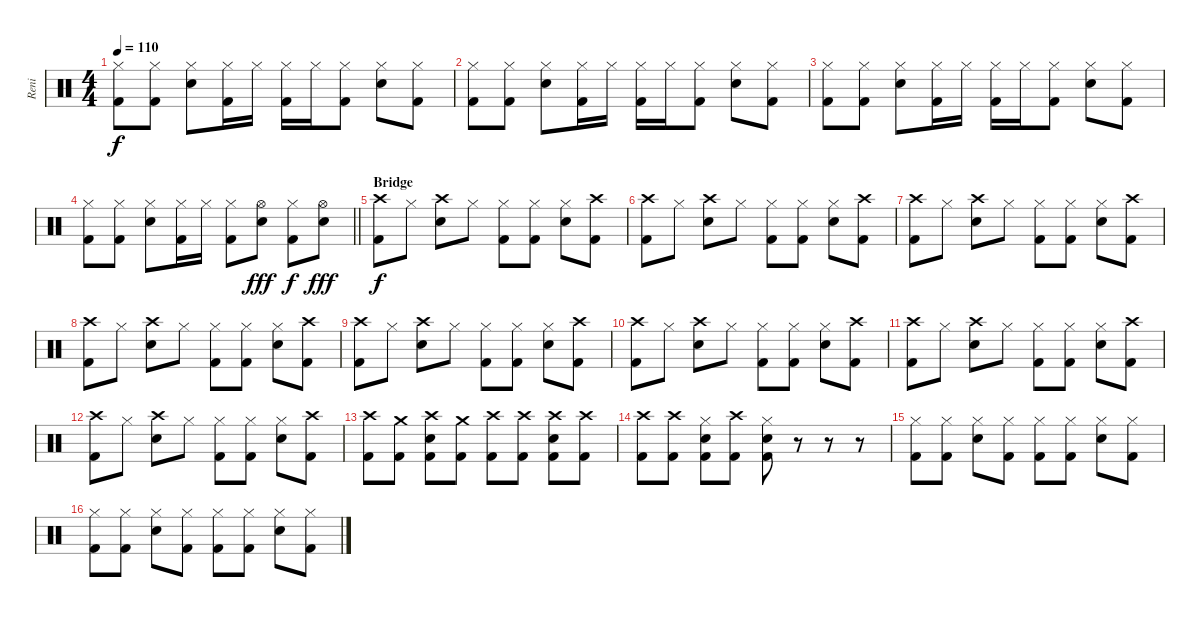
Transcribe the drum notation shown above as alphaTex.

\track ("Reni" "Reni") {instrument percussion}
\staff {score}
\articulation defaults
\ts (4 4)
\tempo 110
\clef neutral
\ks c
("Hi-Hat (closed)" "Kick (hit) 2").8{dy f} ("Hi-Hat (closed)" "Kick (hit) 2").8 ("Hi-Hat (closed)" "Electric Snare (hit)").8 ("Hi-Hat (closed)" "Kick (hit) 2").16 "Hi-Hat (closed)".16 ("Hi-Hat (closed)" "Kick (hit) 2").16 "Hi-Hat (closed)".16 ("Hi-Hat (closed)" "Kick (hit) 2").8 ("Hi-Hat (closed)" "Electric Snare (hit)").8 ("Hi-Hat (closed)" "Kick (hit) 2").8 |
("Hi-Hat (closed)" "Kick (hit) 2").8 ("Hi-Hat (closed)" "Kick (hit) 2").8 ("Hi-Hat (closed)" "Electric Snare (hit)").8 ("Hi-Hat (closed)" "Kick (hit) 2").16 "Hi-Hat (closed)".16 ("Hi-Hat (closed)" "Kick (hit) 2").16 "Hi-Hat (closed)".16 ("Hi-Hat (closed)" "Kick (hit) 2").8 ("Hi-Hat (closed)" "Electric Snare (hit)").8 ("Hi-Hat (closed)" "Kick (hit) 2").8 |
("Hi-Hat (closed)" "Kick (hit) 2").8 ("Hi-Hat (closed)" "Kick (hit) 2").8 ("Hi-Hat (closed)" "Electric Snare (hit)").8 ("Hi-Hat (closed)" "Kick (hit) 2").16 "Hi-Hat (closed)".16 ("Hi-Hat (closed)" "Kick (hit) 2").16 "Hi-Hat (closed)".16 ("Hi-Hat (closed)" "Kick (hit) 2").8 ("Hi-Hat (closed)" "Electric Snare (hit)").8 ("Hi-Hat (closed)" "Kick (hit) 2").8 |
\barLineRight lightlight
("Hi-Hat (closed)" "Kick (hit) 2").8 ("Hi-Hat (closed)" "Kick (hit) 2").8 ("Hi-Hat (closed)" "Electric Snare (hit)").8 ("Hi-Hat (closed)" "Kick (hit) 2").16 "Hi-Hat (closed)".16 ("Hi-Hat (closed)" "Kick (hit) 2").8 ("Hi-Hat (open)" "Electric Snare (hit)").8{dy fff} ("Hi-Hat (closed)" "Kick (hit) 2").8{dy f} ("Hi-Hat (open)" "Electric Snare (hit)").8{dy fff} |
\section ("" "Bridge")
("Crash high (hit)" "Kick (hit) 2").8{dy f} "Hi-Hat (closed)".8 ("Crash high (hit)" "Electric Snare (hit)").8 "Hi-Hat (closed)".8 ("Hi-Hat (closed)" "Kick (hit) 2").8 ("Hi-Hat (closed)" "Kick (hit) 2").8 ("Hi-Hat (closed)" "Electric Snare (hit)").8 ("Crash high (hit)" "Kick (hit) 2").8 |
("Crash high (hit)" "Kick (hit) 2").8 "Hi-Hat (closed)".8 ("Crash high (hit)" "Electric Snare (hit)").8 "Hi-Hat (closed)".8 ("Hi-Hat (closed)" "Kick (hit) 2").8 ("Hi-Hat (closed)" "Kick (hit) 2").8 ("Hi-Hat (closed)" "Electric Snare (hit)").8 ("Crash high (hit)" "Kick (hit) 2").8 |
("Crash high (hit)" "Kick (hit) 2").8 "Hi-Hat (closed)".8 ("Crash high (hit)" "Electric Snare (hit)").8 "Hi-Hat (closed)".8 ("Hi-Hat (closed)" "Kick (hit) 2").8 ("Hi-Hat (closed)" "Kick (hit) 2").8 ("Hi-Hat (closed)" "Electric Snare (hit)").8 ("Crash high (hit)" "Kick (hit) 2").8 |
("Crash high (hit)" "Kick (hit) 2").8 "Hi-Hat (closed)".8 ("Crash high (hit)" "Electric Snare (hit)").8 "Hi-Hat (closed)".8 ("Hi-Hat (closed)" "Kick (hit) 2").8 ("Hi-Hat (closed)" "Kick (hit) 2").8 ("Hi-Hat (closed)" "Electric Snare (hit)").8 ("Crash high (hit)" "Kick (hit) 2").8 |
("Crash high (hit)" "Kick (hit) 2").8 "Hi-Hat (closed)".8 ("Crash high (hit)" "Electric Snare (hit)").8 "Hi-Hat (closed)".8 ("Hi-Hat (closed)" "Kick (hit) 2").8 ("Hi-Hat (closed)" "Kick (hit) 2").8 ("Hi-Hat (closed)" "Electric Snare (hit)").8 ("Crash high (hit)" "Kick (hit) 2").8 |
("Crash high (hit)" "Kick (hit) 2").8 "Hi-Hat (closed)".8 ("Crash high (hit)" "Electric Snare (hit)").8 "Hi-Hat (closed)".8 ("Hi-Hat (closed)" "Kick (hit) 2").8 ("Hi-Hat (closed)" "Kick (hit) 2").8 ("Hi-Hat (closed)" "Electric Snare (hit)").8 ("Crash high (hit)" "Kick (hit) 2").8 |
("Crash high (hit)" "Kick (hit) 2").8 "Hi-Hat (closed)".8 ("Crash high (hit)" "Electric Snare (hit)").8 "Hi-Hat (closed)".8 ("Hi-Hat (closed)" "Kick (hit) 2").8 ("Hi-Hat (closed)" "Kick (hit) 2").8 ("Hi-Hat (closed)" "Electric Snare (hit)").8 ("Crash high (hit)" "Kick (hit) 2").8 |
("Crash high (hit)" "Kick (hit) 2").8 "Hi-Hat (closed)".8 ("Crash high (hit)" "Electric Snare (hit)").8 "Hi-Hat (closed)".8 ("Hi-Hat (closed)" "Kick (hit) 2").8 ("Hi-Hat (closed)" "Kick (hit) 2").8 ("Hi-Hat (closed)" "Electric Snare (hit)").8 ("Crash high (hit)" "Kick (hit) 2").8 |
("Crash high (hit)" "Kick (hit) 2").8 ("Crash medium (hit)" "Kick (hit) 2").8 ("Crash high (hit)" "Electric Snare (hit)" "Kick (hit) 2").8 ("Crash medium (hit)" "Kick (hit) 2").8 ("Crash high (hit)" "Kick (hit) 2").8 ("Crash high (hit)" "Kick (hit) 2").8 ("Crash high (hit)" "Electric Snare (hit)" "Kick (hit) 2").8 ("Crash high (hit)" "Kick (hit) 2").8 |
("Crash high (hit)" "Kick (hit) 2").8 ("Crash high (hit)" "Kick (hit) 2").8 ("Hi-Hat (closed)" "Electric Snare (hit)" "Kick (hit) 2").8 ("Crash high (hit)" "Kick (hit) 2").8 ("Hi-Hat (closed)" "Electric Snare (hit)" "Kick (hit) 2").8 r.8 r.8 r.8 |
("Hi-Hat (closed)" "Kick (hit) 2").8 ("Hi-Hat (closed)" "Kick (hit) 2").8 ("Hi-Hat (closed)" "Electric Snare (hit)").8 ("Hi-Hat (closed)" "Kick (hit) 2").8 ("Hi-Hat (closed)" "Kick (hit) 2").8 ("Hi-Hat (closed)" "Kick (hit) 2").8 ("Hi-Hat (closed)" "Electric Snare (hit)").8 ("Hi-Hat (closed)" "Kick (hit) 2").8 |
("Hi-Hat (closed)" "Kick (hit) 2").8 ("Hi-Hat (closed)" "Kick (hit) 2").8 ("Hi-Hat (closed)" "Electric Snare (hit)").8 ("Hi-Hat (closed)" "Kick (hit) 2").8 ("Hi-Hat (closed)" "Kick (hit) 2").8 ("Hi-Hat (closed)" "Kick (hit) 2").8 ("Hi-Hat (closed)" "Electric Snare (hit)").8 ("Hi-Hat (closed)" "Kick (hit) 2").8
